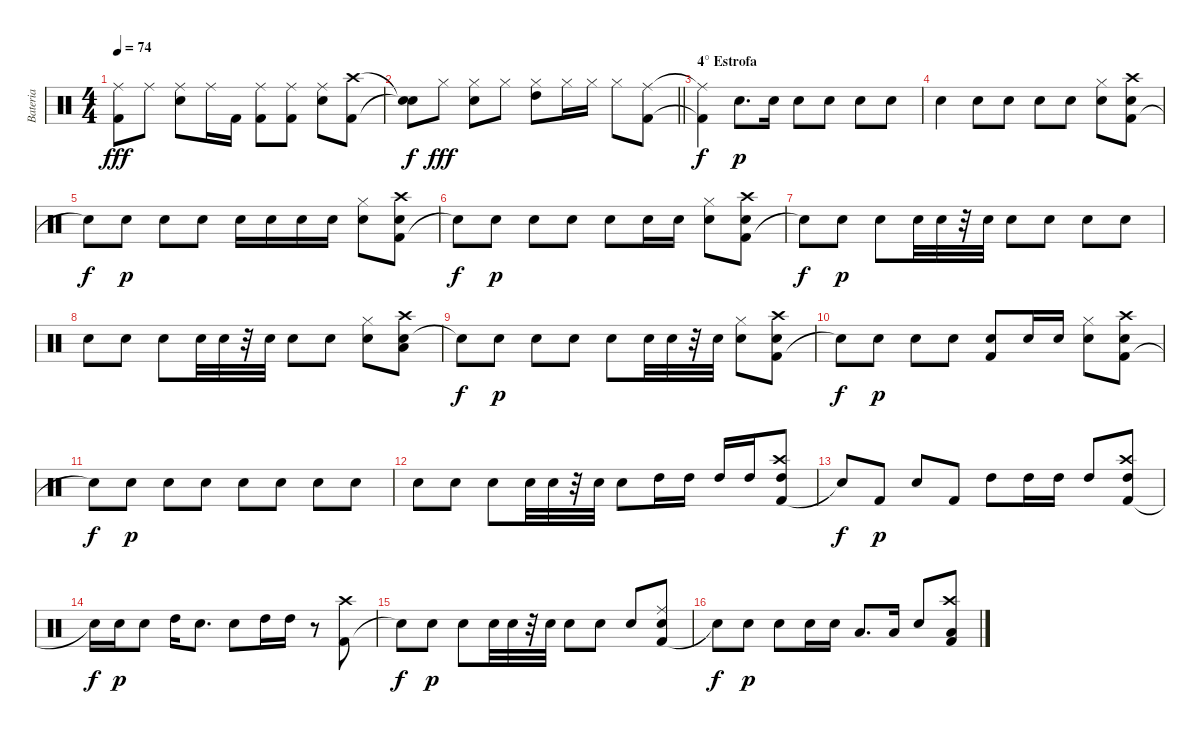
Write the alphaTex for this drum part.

\track ("Bateria" "Bateria") {instrument percussion}
\staff {score}
\articulation defaults
\ts (4 4)
\tempo 74
\clef neutral
\ks c
("Kick (hit) 2" "Ride (middle)").8{dy fff} "Ride (middle)".8 ("Snare (hit) 2" "Ride (middle)").8 "Ride (middle)".16 "Kick (hit) 2".16 ("Kick (hit) 2" "Ride (middle)").8 ("Kick (hit) 2" "Ride (middle)").8 ("Snare (hit) 2" "Ride (middle)").8 ("Kick (hit) 2" "Crash high (hit)").8 |
\barLineRight lightlight
("Snare (hit)"{t} "Snare (hit)"{t}).8{dy f} "Hi-Hat (closed)".8{dy fff} ("Snare (hit) 2" "Hi-Hat (closed)").8 "Hi-Hat (closed)".8 ("Hi-Hat (closed)" "High Tom (hit)").8 "Hi-Hat (closed)".16 "Hi-Hat (closed)".16 "Hi-Hat (closed)".8 ("Kick (hit) 2" "Ride (middle)").8 |
\section ("" "4° Estrofa")
("Kick (hit) 2"{t} "Ride (middle)"{t}).4{dy f} "Snare (hit) 2".8{d dy p} "Snare (hit) 2".16 "Snare (hit) 2".8 "Snare (hit) 2".8 "Snare (hit) 2".8 "Snare (hit) 2".8 |
"Snare (hit) 2".4 "Snare (hit) 2".8 "Snare (hit) 2".8 "Snare (hit) 2".8 "Snare (hit) 2".8 ("Snare (hit) 2" "Hi-Hat (closed)").8 ("Kick (hit) 2" "Snare (hit) 2" "Crash high (hit)").8 |
"Snare (hit)"{t}.8{dy f} "Snare (hit) 2".8{dy p} "Snare (hit) 2".8 "Snare (hit) 2".8 "Snare (hit) 2".16 "Snare (hit) 2".16 "Snare (hit) 2".16 "Snare (hit) 2".16 ("Snare (hit) 2" "Hi-Hat (closed)").8 ("Kick (hit) 2" "Snare (hit) 2" "Crash high (hit)").8 |
"Snare (hit)"{t}.8{dy f} "Snare (hit) 2".8{dy p} "Snare (hit) 2".8 "Snare (hit) 2".8 "Snare (hit) 2".8 "Snare (hit) 2".16 "Snare (hit) 2".16 ("Snare (hit) 2" "Hi-Hat (closed)").8 ("Kick (hit) 2" "Snare (hit) 2" "Crash high (hit)").8 |
"Snare (hit)"{t}.8{dy f} "Snare (hit) 2".8{dy p} "Snare (hit) 2".8 "Snare (hit) 2".32 "Snare (hit) 2".32 r.32 "Snare (hit) 2".32 "Snare (hit) 2".8 "Snare (hit) 2".8 "Snare (hit) 2".8 "Snare (hit) 2".8 |
"Snare (hit) 2".8 "Snare (hit) 2".8 "Snare (hit) 2".8 "Snare (hit) 2".32 "Snare (hit) 2".32 r.32 "Snare (hit) 2".32 "Snare (hit) 2".8 "Snare (hit) 2".8 ("Snare (hit) 2" "Hi-Hat (closed)").8 ("Snare (hit) 2" "Low Tom (hit)" "Crash high (hit)").8 |
"Snare (hit)"{t}.8{dy f} "Snare (hit) 2".8{dy p} "Snare (hit) 2".8 "Snare (hit) 2".8 "Snare (hit) 2".8 "Snare (hit) 2".32 "Snare (hit) 2".32 r.32 "Snare (hit) 2".32 ("Snare (hit) 2" "Hi-Hat (closed)").8 ("Kick (hit) 2" "Snare (hit) 2" "Crash high (hit)").8 |
"Snare (hit)"{t}.8{dy f} "Snare (hit) 2".8{dy p} "Snare (hit) 2".8 "Snare (hit) 2".8 ("Kick (hit) 2" "Snare (hit) 2").8 "Snare (hit) 2".16 "Snare (hit) 2".16 ("Snare (hit) 2" "Hi-Hat (closed)").8 ("Kick (hit) 2" "Snare (hit) 2" "Crash high (hit)").8 |
"Snare (hit)"{t}.8{dy f} "Snare (hit) 2".8{dy p} "Snare (hit) 2".8 "Snare (hit) 2".8 "Snare (hit) 2".8 "Snare (hit) 2".8 "Snare (hit) 2".8 "Snare (hit) 2".8 |
"Snare (hit) 2".8 "Snare (hit) 2".8 "Snare (hit) 2".8 "Snare (hit) 2".32 "Snare (hit) 2".32 r.32 "Snare (hit) 2".32 "Snare (hit) 2".8 "High Tom (hit)".16 "High Tom (hit)".16 "High Tom (hit)".16 "High Tom (hit)".16 ("Kick (hit) 2" "High Tom (hit)" "Crash high (hit)").8 |
"Snare (hit)"{t}.8{dy f} "Kick (hit) 2".8{dy p} "Snare (hit) 2".8 "Kick (hit) 2".8 "High Tom (hit)".8 "High Tom (hit)".16 "High Tom (hit)".16 "High Tom (hit)".8 ("Kick (hit) 2" "High Tom (hit)" "Crash high (hit)").8 |
"Snare (hit)"{t}.16{dy f} "Snare (hit) 2".16{dy p} "Snare (hit) 2".8 "High Tom (hit)".16 "Snare (hit) 2".8{d} "Snare (hit) 2".8 "High Tom (hit)".16 "High Tom (hit)".16 r.8 ("Kick (hit) 2" "Crash high (hit)").8 |
"Snare (hit)"{t}.8{dy f} "Snare (hit) 2".8{dy p} "Snare (hit) 2".8 "Snare (hit) 2".32 "Snare (hit) 2".32 r.32 "Snare (hit) 2".32 "Snare (hit) 2".8 "Snare (hit) 2".8 "Snare (hit) 2".8 ("Kick (hit) 2" "Snare (hit) 2" "Ride (middle)").8 |
"Snare (hit)"{t}.8{dy f} "Snare (hit) 2".8{dy p} "Snare (hit) 2".8 "Snare (hit) 2".16 "Snare (hit) 2".16 "Low Tom (hit)".8{d} "Low Tom (hit)".16 "Snare (hit) 2".8 ("Kick (hit) 2" "Low Tom (hit)" "Crash high (hit)").8
